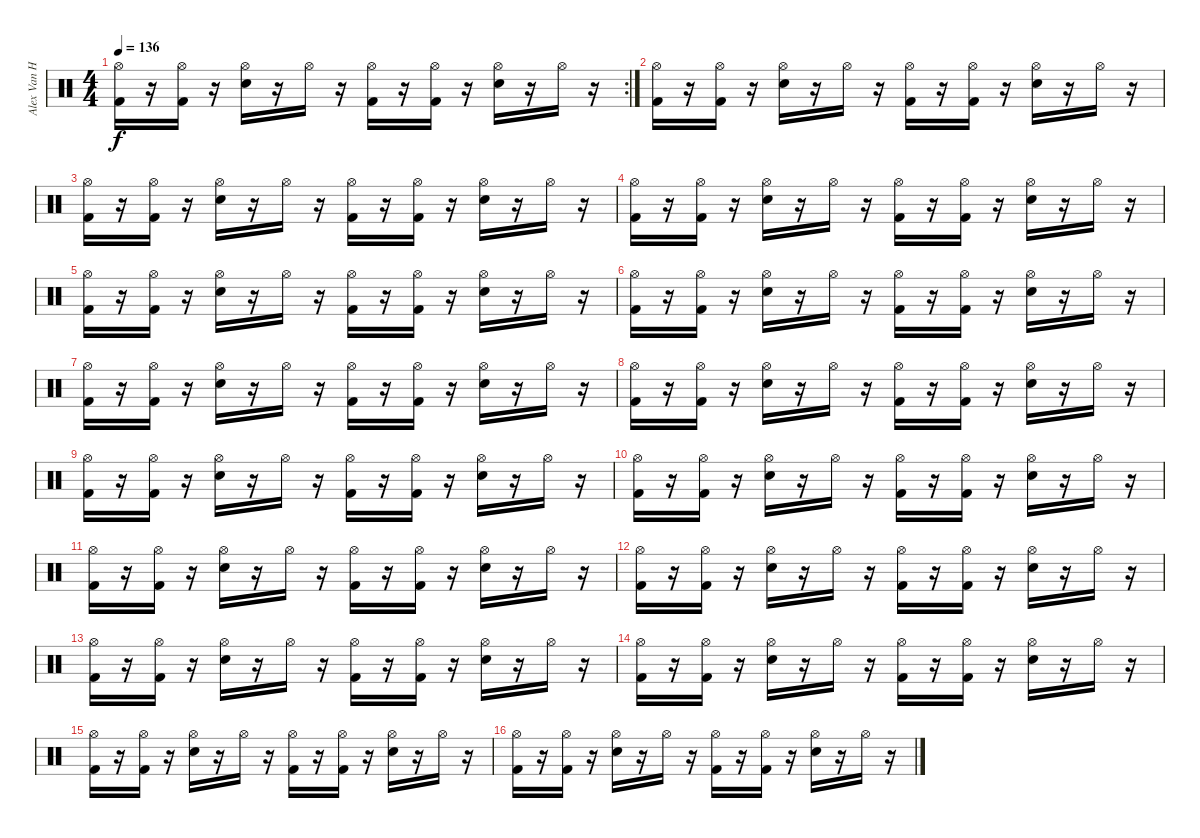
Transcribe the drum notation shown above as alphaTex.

\track ("Alex Van Halen (Drums)" "Alex Van H") {instrument percussion}
\staff {score}
\articulation defaults
\rc 2
\ts (4 4)
\tempo 136
\clef neutral
\ks c
("Hi-Hat (open)" "Kick (hit) 2").16{dy f} r.16 ("Hi-Hat (open)" "Kick (hit) 2").16 r.16 ("Hi-Hat (open)" "Snare (hit) 2").16 r.16 "Hi-Hat (open)".16 r.16 ("Hi-Hat (open)" "Kick (hit) 2").16 r.16 ("Hi-Hat (open)" "Kick (hit) 2").16 r.16 ("Hi-Hat (open)" "Snare (hit) 2").16 r.16 "Hi-Hat (open)".16 r.16 |
("Hi-Hat (open)" "Kick (hit) 2").16 r.16 ("Hi-Hat (open)" "Kick (hit) 2").16 r.16 ("Hi-Hat (open)" "Snare (hit) 2").16 r.16 "Hi-Hat (open)".16 r.16 ("Hi-Hat (open)" "Kick (hit) 2").16 r.16 ("Hi-Hat (open)" "Kick (hit) 2").16 r.16 ("Hi-Hat (open)" "Snare (hit) 2").16 r.16 "Hi-Hat (open)".16 r.16 |
("Hi-Hat (open)" "Kick (hit) 2").16 r.16 ("Hi-Hat (open)" "Kick (hit) 2").16 r.16 ("Hi-Hat (open)" "Snare (hit) 2").16 r.16 "Hi-Hat (open)".16 r.16 ("Hi-Hat (open)" "Kick (hit) 2").16 r.16 ("Hi-Hat (open)" "Kick (hit) 2").16 r.16 ("Hi-Hat (open)" "Snare (hit) 2").16 r.16 "Hi-Hat (open)".16 r.16 |
("Hi-Hat (open)" "Kick (hit) 2").16 r.16 ("Hi-Hat (open)" "Kick (hit) 2").16 r.16 ("Hi-Hat (open)" "Snare (hit) 2").16 r.16 "Hi-Hat (open)".16 r.16 ("Hi-Hat (open)" "Kick (hit) 2").16 r.16 ("Hi-Hat (open)" "Kick (hit) 2").16 r.16 ("Hi-Hat (open)" "Snare (hit) 2").16 r.16 "Hi-Hat (open)".16 r.16 |
("Hi-Hat (open)" "Kick (hit) 2").16 r.16 ("Hi-Hat (open)" "Kick (hit) 2").16 r.16 ("Hi-Hat (open)" "Snare (hit) 2").16 r.16 "Hi-Hat (open)".16 r.16 ("Hi-Hat (open)" "Kick (hit) 2").16 r.16 ("Hi-Hat (open)" "Kick (hit) 2").16 r.16 ("Hi-Hat (open)" "Snare (hit) 2").16 r.16 "Hi-Hat (open)".16 r.16 |
("Hi-Hat (open)" "Kick (hit) 2").16 r.16 ("Hi-Hat (open)" "Kick (hit) 2").16 r.16 ("Hi-Hat (open)" "Snare (hit) 2").16 r.16 "Hi-Hat (open)".16 r.16 ("Hi-Hat (open)" "Kick (hit) 2").16 r.16 ("Hi-Hat (open)" "Kick (hit) 2").16 r.16 ("Hi-Hat (open)" "Snare (hit) 2").16 r.16 "Hi-Hat (open)".16 r.16 |
("Hi-Hat (open)" "Kick (hit) 2").16 r.16 ("Hi-Hat (open)" "Kick (hit) 2").16 r.16 ("Hi-Hat (open)" "Snare (hit) 2").16 r.16 "Hi-Hat (open)".16 r.16 ("Hi-Hat (open)" "Kick (hit) 2").16 r.16 ("Hi-Hat (open)" "Kick (hit) 2").16 r.16 ("Hi-Hat (open)" "Snare (hit) 2").16 r.16 "Hi-Hat (open)".16 r.16 |
("Hi-Hat (open)" "Kick (hit) 2").16 r.16 ("Hi-Hat (open)" "Kick (hit) 2").16 r.16 ("Hi-Hat (open)" "Snare (hit) 2").16 r.16 "Hi-Hat (open)".16 r.16 ("Hi-Hat (open)" "Kick (hit) 2").16 r.16 ("Hi-Hat (open)" "Kick (hit) 2").16 r.16 ("Hi-Hat (open)" "Snare (hit) 2").16 r.16 "Hi-Hat (open)".16 r.16 |
("Hi-Hat (open)" "Kick (hit) 2").16 r.16 ("Hi-Hat (open)" "Kick (hit) 2").16 r.16 ("Hi-Hat (open)" "Snare (hit) 2").16 r.16 "Hi-Hat (open)".16 r.16 ("Hi-Hat (open)" "Kick (hit) 2").16 r.16 ("Hi-Hat (open)" "Kick (hit) 2").16 r.16 ("Hi-Hat (open)" "Snare (hit) 2").16 r.16 "Hi-Hat (open)".16 r.16 |
("Hi-Hat (open)" "Kick (hit) 2").16 r.16 ("Hi-Hat (open)" "Kick (hit) 2").16 r.16 ("Hi-Hat (open)" "Snare (hit) 2").16 r.16 "Hi-Hat (open)".16 r.16 ("Hi-Hat (open)" "Kick (hit) 2").16 r.16 ("Hi-Hat (open)" "Kick (hit) 2").16 r.16 ("Hi-Hat (open)" "Snare (hit) 2").16 r.16 "Hi-Hat (open)".16 r.16 |
("Hi-Hat (open)" "Kick (hit) 2").16 r.16 ("Hi-Hat (open)" "Kick (hit) 2").16 r.16 ("Hi-Hat (open)" "Snare (hit) 2").16 r.16 "Hi-Hat (open)".16 r.16 ("Hi-Hat (open)" "Kick (hit) 2").16 r.16 ("Hi-Hat (open)" "Kick (hit) 2").16 r.16 ("Hi-Hat (open)" "Snare (hit) 2").16 r.16 "Hi-Hat (open)".16 r.16 |
("Hi-Hat (open)" "Kick (hit) 2").16 r.16 ("Hi-Hat (open)" "Kick (hit) 2").16 r.16 ("Hi-Hat (open)" "Snare (hit) 2").16 r.16 "Hi-Hat (open)".16 r.16 ("Hi-Hat (open)" "Kick (hit) 2").16 r.16 ("Hi-Hat (open)" "Kick (hit) 2").16 r.16 ("Hi-Hat (open)" "Snare (hit) 2").16 r.16 "Hi-Hat (open)".16 r.16 |
("Hi-Hat (open)" "Kick (hit) 2").16 r.16 ("Hi-Hat (open)" "Kick (hit) 2").16 r.16 ("Hi-Hat (open)" "Snare (hit) 2").16 r.16 "Hi-Hat (open)".16 r.16 ("Hi-Hat (open)" "Kick (hit) 2").16 r.16 ("Hi-Hat (open)" "Kick (hit) 2").16 r.16 ("Hi-Hat (open)" "Snare (hit) 2").16 r.16 "Hi-Hat (open)".16 r.16 |
("Hi-Hat (open)" "Kick (hit) 2").16 r.16 ("Hi-Hat (open)" "Kick (hit) 2").16 r.16 ("Hi-Hat (open)" "Snare (hit) 2").16 r.16 "Hi-Hat (open)".16 r.16 ("Hi-Hat (open)" "Kick (hit) 2").16 r.16 ("Hi-Hat (open)" "Kick (hit) 2").16 r.16 ("Hi-Hat (open)" "Snare (hit) 2").16 r.16 "Hi-Hat (open)".16 r.16 |
("Hi-Hat (open)" "Kick (hit) 2").16 r.16 ("Hi-Hat (open)" "Kick (hit) 2").16 r.16 ("Hi-Hat (open)" "Snare (hit) 2").16 r.16 "Hi-Hat (open)".16 r.16 ("Hi-Hat (open)" "Kick (hit) 2").16 r.16 ("Hi-Hat (open)" "Kick (hit) 2").16 r.16 ("Hi-Hat (open)" "Snare (hit) 2").16 r.16 "Hi-Hat (open)".16 r.16 |
("Hi-Hat (open)" "Kick (hit) 2").16 r.16 ("Hi-Hat (open)" "Kick (hit) 2").16 r.16 ("Hi-Hat (open)" "Snare (hit) 2").16 r.16 "Hi-Hat (open)".16 r.16 ("Hi-Hat (open)" "Kick (hit) 2").16 r.16 ("Hi-Hat (open)" "Kick (hit) 2").16 r.16 ("Hi-Hat (open)" "Snare (hit) 2").16 r.16 "Hi-Hat (open)".16 r.16
